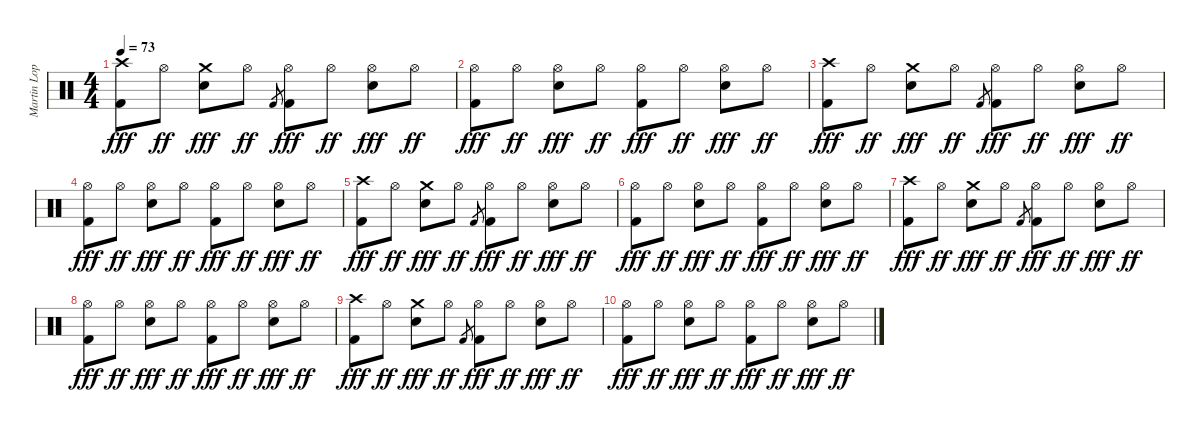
\track ("Martin Lopez" "Martin Lop") {instrument percussion}
\staff {score}
\articulation defaults
\ts (4 4)
\tempo 73
\clef neutral
\ks c
("Crash high (hit)" "Kick (hit) 2").8{dy fff} "Hi-Hat (open)".8{dy ff} ("Crash medium (hit)" "Electric Snare (hit)").8{dy fff} "Hi-Hat (open)".8{dy ff} "Kick (hit) 2".8{gr} ("Hi-Hat (open)" "Kick (hit) 2").8{dy fff} "Hi-Hat (open)".8{dy ff} ("Hi-Hat (open)" "Electric Snare (hit)").8{dy fff} "Hi-Hat (open)".8{dy ff} |
("Hi-Hat (open)" "Kick (hit) 2").8{dy fff} "Hi-Hat (open)".8{dy ff} ("Hi-Hat (open)" "Electric Snare (hit)").8{dy fff} "Hi-Hat (open)".8{dy ff} ("Hi-Hat (open)" "Kick (hit) 2").8{dy fff} "Hi-Hat (open)".8{dy ff} ("Hi-Hat (open)" "Electric Snare (hit)").8{dy fff} "Hi-Hat (open)".8{dy ff} |
("Crash high (hit)" "Kick (hit) 2").8{dy fff} "Hi-Hat (open)".8{dy ff} ("Crash medium (hit)" "Electric Snare (hit)").8{dy fff} "Hi-Hat (open)".8{dy ff} "Kick (hit) 2".8{gr} ("Hi-Hat (open)" "Kick (hit) 2").8{dy fff} "Hi-Hat (open)".8{dy ff} ("Hi-Hat (open)" "Electric Snare (hit)").8{dy fff} "Hi-Hat (open)".8{dy ff} |
("Hi-Hat (open)" "Kick (hit) 2").8{dy fff} "Hi-Hat (open)".8{dy ff} ("Hi-Hat (open)" "Electric Snare (hit)").8{dy fff} "Hi-Hat (open)".8{dy ff} ("Hi-Hat (open)" "Kick (hit) 2").8{dy fff} "Hi-Hat (open)".8{dy ff} ("Hi-Hat (open)" "Electric Snare (hit)").8{dy fff} "Hi-Hat (open)".8{dy ff} |
("Crash high (hit)" "Kick (hit) 2").8{dy fff} "Hi-Hat (open)".8{dy ff} ("Crash medium (hit)" "Electric Snare (hit)").8{dy fff} "Hi-Hat (open)".8{dy ff} "Kick (hit) 2".8{gr} ("Hi-Hat (open)" "Kick (hit) 2").8{dy fff} "Hi-Hat (open)".8{dy ff} ("Hi-Hat (open)" "Electric Snare (hit)").8{dy fff} "Hi-Hat (open)".8{dy ff} |
("Hi-Hat (open)" "Kick (hit) 2").8{dy fff} "Hi-Hat (open)".8{dy ff} ("Hi-Hat (open)" "Electric Snare (hit)").8{dy fff} "Hi-Hat (open)".8{dy ff} ("Hi-Hat (open)" "Kick (hit) 2").8{dy fff} "Hi-Hat (open)".8{dy ff} ("Hi-Hat (open)" "Electric Snare (hit)").8{dy fff volume 0} "Hi-Hat (open)".8{dy ff} |
("Crash high (hit)" "Kick (hit) 2").8{dy fff} "Hi-Hat (open)".8{dy ff} ("Crash medium (hit)" "Electric Snare (hit)").8{dy fff} "Hi-Hat (open)".8{dy ff} "Kick (hit) 2".8{gr} ("Hi-Hat (open)" "Kick (hit) 2").8{dy fff} "Hi-Hat (open)".8{dy ff} ("Hi-Hat (open)" "Electric Snare (hit)").8{dy fff} "Hi-Hat (open)".8{dy ff} |
("Hi-Hat (open)" "Kick (hit) 2").8{dy fff} "Hi-Hat (open)".8{dy ff} ("Hi-Hat (open)" "Electric Snare (hit)").8{dy fff} "Hi-Hat (open)".8{dy ff} ("Hi-Hat (open)" "Kick (hit) 2").8{dy fff} "Hi-Hat (open)".8{dy ff} ("Hi-Hat (open)" "Electric Snare (hit)").8{dy fff} "Hi-Hat (open)".8{dy ff} |
("Crash high (hit)" "Kick (hit) 2").8{dy fff} "Hi-Hat (open)".8{dy ff} ("Crash medium (hit)" "Electric Snare (hit)").8{dy fff} "Hi-Hat (open)".8{dy ff} "Kick (hit) 2".8{gr} ("Hi-Hat (open)" "Kick (hit) 2").8{dy fff} "Hi-Hat (open)".8{dy ff} ("Hi-Hat (open)" "Electric Snare (hit)").8{dy fff} "Hi-Hat (open)".8{dy ff} |
("Hi-Hat (open)" "Kick (hit) 2").8{dy fff} "Hi-Hat (open)".8{dy ff} ("Hi-Hat (open)" "Electric Snare (hit)").8{dy fff} "Hi-Hat (open)".8{dy ff} ("Hi-Hat (open)" "Kick (hit) 2").8{dy fff} "Hi-Hat (open)".8{dy ff} ("Hi-Hat (open)" "Electric Snare (hit)").8{dy fff} "Hi-Hat (open)".8{dy ff}
